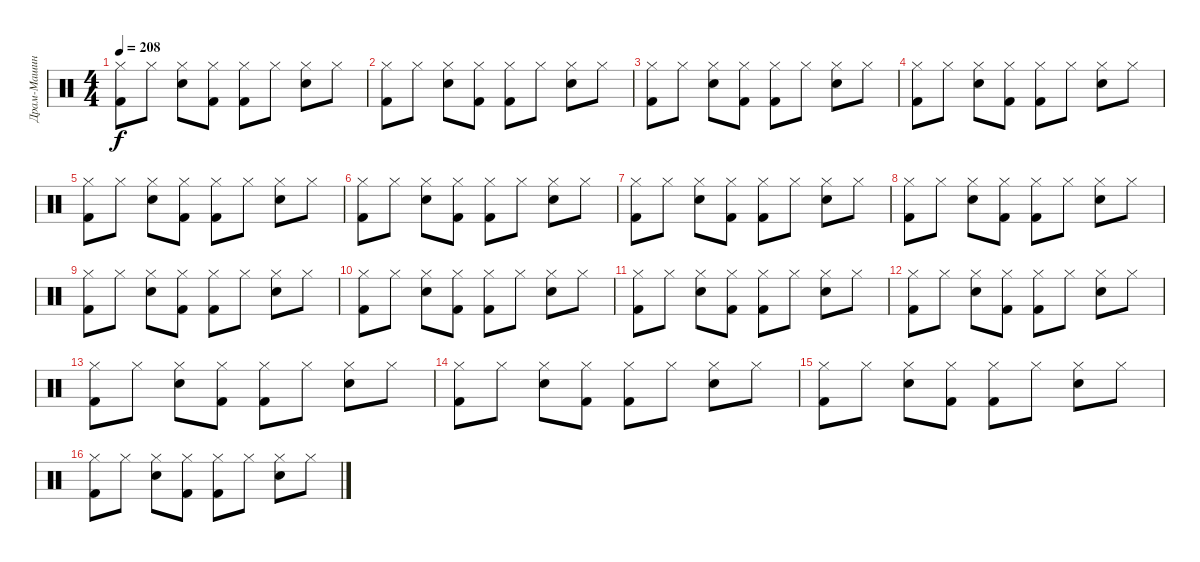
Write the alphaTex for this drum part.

\track ("Драм-Машина" "Драм-Машин") {instrument percussion}
\staff {score}
\articulation defaults
\ts (4 4)
\tempo 208
\clef neutral
\ks c
("Hi-Hat (closed)" "Kick (hit) 2").8{dy f} "Hi-Hat (closed)".8 ("Hi-Hat (closed)" "Electric Snare (hit)").8 ("Hi-Hat (closed)" "Kick (hit) 2").8 ("Hi-Hat (closed)" "Kick (hit) 2").8 "Hi-Hat (closed)".8 ("Hi-Hat (closed)" "Electric Snare (hit)").8 "Hi-Hat (closed)".8 |
("Hi-Hat (closed)" "Kick (hit) 2").8 "Hi-Hat (closed)".8 ("Hi-Hat (closed)" "Electric Snare (hit)").8 ("Hi-Hat (closed)" "Kick (hit) 2").8 ("Hi-Hat (closed)" "Kick (hit) 2").8 "Hi-Hat (closed)".8 ("Hi-Hat (closed)" "Electric Snare (hit)").8 "Hi-Hat (closed)".8 |
("Hi-Hat (closed)" "Kick (hit) 2").8 "Hi-Hat (closed)".8 ("Hi-Hat (closed)" "Electric Snare (hit)").8 ("Hi-Hat (closed)" "Kick (hit) 2").8 ("Hi-Hat (closed)" "Kick (hit) 2").8 "Hi-Hat (closed)".8 ("Hi-Hat (closed)" "Electric Snare (hit)").8 "Hi-Hat (closed)".8 |
("Hi-Hat (closed)" "Kick (hit) 2").8 "Hi-Hat (closed)".8 ("Hi-Hat (closed)" "Electric Snare (hit)").8 ("Hi-Hat (closed)" "Kick (hit) 2").8 ("Hi-Hat (closed)" "Kick (hit) 2").8 "Hi-Hat (closed)".8 ("Hi-Hat (closed)" "Electric Snare (hit)").8 "Hi-Hat (closed)".8 |
("Hi-Hat (closed)" "Kick (hit) 2").8 "Hi-Hat (closed)".8 ("Hi-Hat (closed)" "Electric Snare (hit)").8 ("Hi-Hat (closed)" "Kick (hit) 2").8 ("Hi-Hat (closed)" "Kick (hit) 2").8 "Hi-Hat (closed)".8 ("Hi-Hat (closed)" "Electric Snare (hit)").8 "Hi-Hat (closed)".8 |
("Hi-Hat (closed)" "Kick (hit) 2").8 "Hi-Hat (closed)".8 ("Hi-Hat (closed)" "Electric Snare (hit)").8 ("Hi-Hat (closed)" "Kick (hit) 2").8 ("Hi-Hat (closed)" "Kick (hit) 2").8 "Hi-Hat (closed)".8 ("Hi-Hat (closed)" "Electric Snare (hit)").8 "Hi-Hat (closed)".8 |
("Hi-Hat (closed)" "Kick (hit) 2").8 "Hi-Hat (closed)".8 ("Hi-Hat (closed)" "Electric Snare (hit)").8 ("Hi-Hat (closed)" "Kick (hit) 2").8 ("Hi-Hat (closed)" "Kick (hit) 2").8 "Hi-Hat (closed)".8 ("Hi-Hat (closed)" "Electric Snare (hit)").8 "Hi-Hat (closed)".8 |
("Hi-Hat (closed)" "Kick (hit) 2").8 "Hi-Hat (closed)".8 ("Hi-Hat (closed)" "Electric Snare (hit)").8 ("Hi-Hat (closed)" "Kick (hit) 2").8 ("Hi-Hat (closed)" "Kick (hit) 2").8 "Hi-Hat (closed)".8 ("Hi-Hat (closed)" "Electric Snare (hit)").8 "Hi-Hat (closed)".8 |
("Hi-Hat (closed)" "Kick (hit) 2").8 "Hi-Hat (closed)".8 ("Hi-Hat (closed)" "Electric Snare (hit)").8 ("Hi-Hat (closed)" "Kick (hit) 2").8 ("Hi-Hat (closed)" "Kick (hit) 2").8 "Hi-Hat (closed)".8 ("Hi-Hat (closed)" "Electric Snare (hit)").8 "Hi-Hat (closed)".8 |
("Hi-Hat (closed)" "Kick (hit) 2").8 "Hi-Hat (closed)".8 ("Hi-Hat (closed)" "Electric Snare (hit)").8 ("Hi-Hat (closed)" "Kick (hit) 2").8 ("Hi-Hat (closed)" "Kick (hit) 2").8 "Hi-Hat (closed)".8 ("Hi-Hat (closed)" "Electric Snare (hit)").8 "Hi-Hat (closed)".8 |
("Hi-Hat (closed)" "Kick (hit) 2").8 "Hi-Hat (closed)".8 ("Hi-Hat (closed)" "Electric Snare (hit)").8 ("Hi-Hat (closed)" "Kick (hit) 2").8 ("Hi-Hat (closed)" "Kick (hit) 2").8 "Hi-Hat (closed)".8 ("Hi-Hat (closed)" "Electric Snare (hit)").8 "Hi-Hat (closed)".8 |
("Hi-Hat (closed)" "Kick (hit) 2").8 "Hi-Hat (closed)".8 ("Hi-Hat (closed)" "Electric Snare (hit)").8 ("Hi-Hat (closed)" "Kick (hit) 2").8 ("Hi-Hat (closed)" "Kick (hit) 2").8 "Hi-Hat (closed)".8 ("Hi-Hat (closed)" "Electric Snare (hit)").8 "Hi-Hat (closed)".8 |
("Hi-Hat (closed)" "Kick (hit) 2").8 "Hi-Hat (closed)".8 ("Hi-Hat (closed)" "Electric Snare (hit)").8 ("Hi-Hat (closed)" "Kick (hit) 2").8 ("Hi-Hat (closed)" "Kick (hit) 2").8 "Hi-Hat (closed)".8 ("Hi-Hat (closed)" "Electric Snare (hit)").8 "Hi-Hat (closed)".8 |
("Hi-Hat (closed)" "Kick (hit) 2").8 "Hi-Hat (closed)".8 ("Hi-Hat (closed)" "Electric Snare (hit)").8 ("Hi-Hat (closed)" "Kick (hit) 2").8 ("Hi-Hat (closed)" "Kick (hit) 2").8 "Hi-Hat (closed)".8 ("Hi-Hat (closed)" "Electric Snare (hit)").8 "Hi-Hat (closed)".8 |
("Hi-Hat (closed)" "Kick (hit) 2").8 "Hi-Hat (closed)".8 ("Hi-Hat (closed)" "Electric Snare (hit)").8 ("Hi-Hat (closed)" "Kick (hit) 2").8 ("Hi-Hat (closed)" "Kick (hit) 2").8 "Hi-Hat (closed)".8 ("Hi-Hat (closed)" "Electric Snare (hit)").8 "Hi-Hat (closed)".8 |
("Hi-Hat (closed)" "Kick (hit) 2").8 "Hi-Hat (closed)".8 ("Hi-Hat (closed)" "Electric Snare (hit)").8 ("Hi-Hat (closed)" "Kick (hit) 2").8 ("Hi-Hat (closed)" "Kick (hit) 2").8 "Hi-Hat (closed)".8 ("Hi-Hat (closed)" "Electric Snare (hit)").8 "Hi-Hat (closed)".8
